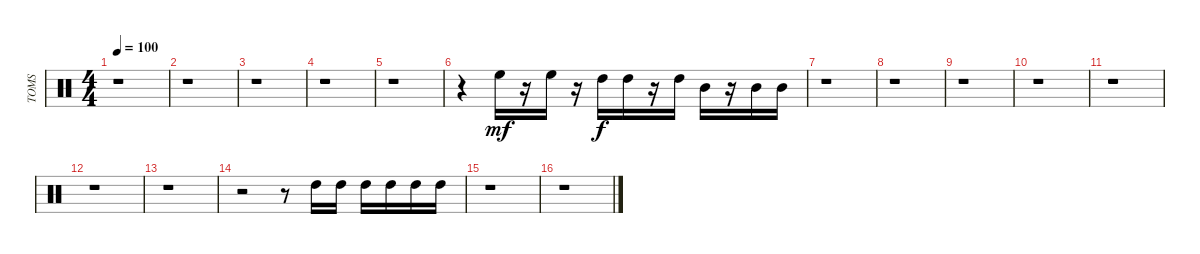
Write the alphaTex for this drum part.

\track ("TOMS" "TOMS") {instrument percussion}
\staff {score}
\articulation defaults
\ts (4 4)
\tempo 100
\clef neutral
\ks c
r.1{dy ff} |
r.1 |
r.1 |
r.1 |
r.1 |
r.4 "High Floor Tom (hit)".16{dy mf} r.16 "High Floor Tom (hit)".16 r.16 "High Tom (hit)".16{dy f} "High Tom (hit)".16 r.16 "High Tom (hit)".16 "Mid Tom (hit)".16 r.16 "Mid Tom (hit)".16 "Mid Tom (hit)".16 |
r.1 |
r.1 |
r.1 |
r.1 |
r.1 |
r.1 |
r.1 |
r.2 r.8 "High Tom (hit)".16 "High Tom (hit)".16 "High Tom (hit)".16 "High Tom (hit)".16 "High Tom (hit)".16 "High Tom (hit)".16 |
r.1 |
r.1
